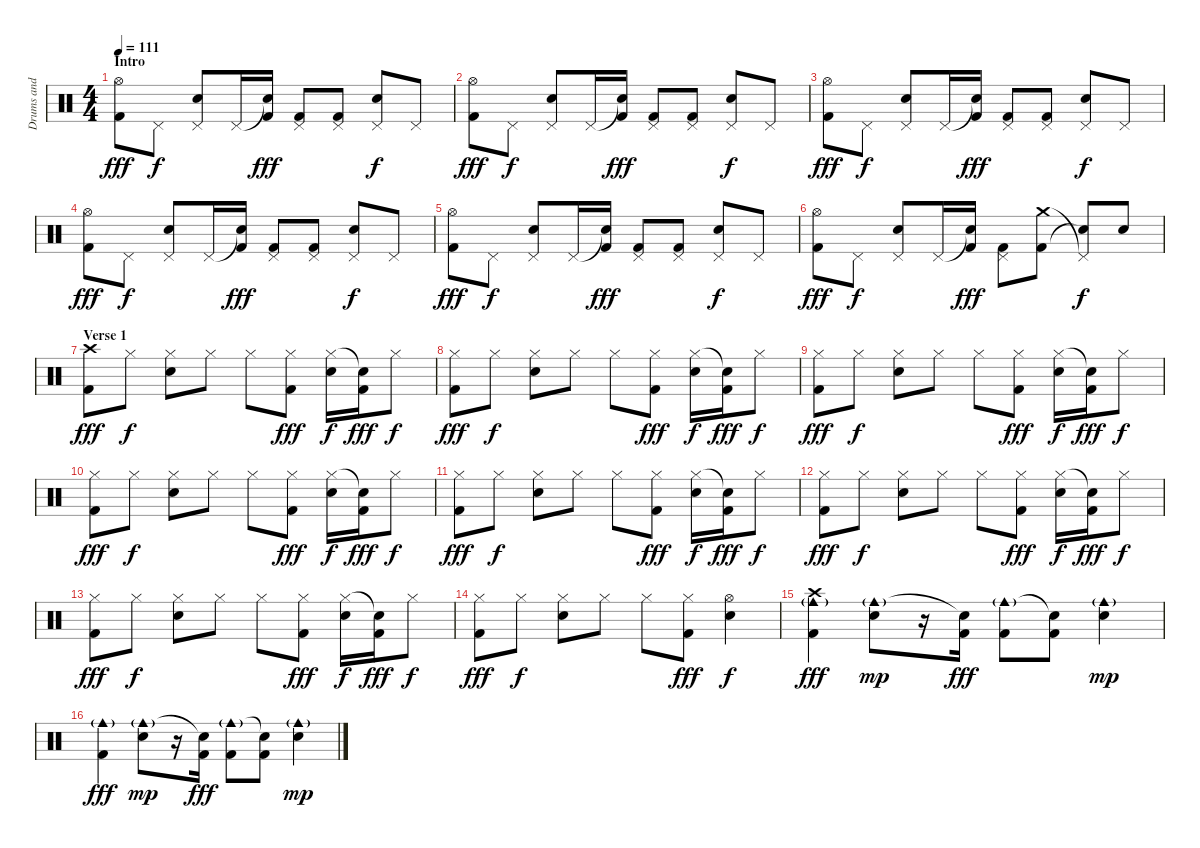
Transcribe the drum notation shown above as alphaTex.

\track ("Drums and Percussion" "Drums and ") {instrument percussion}
\staff {score}
\articulation defaults
\ts (4 4)
\section ("" "Intro")
\tempo 111
\clef neutral
\ks c
("Hi-Hat (open)" "Kick (hit) 2").8{dy fff} "Pedal Hi-Hat (hit)".8{dy f} ("Pedal Hi-Hat (hit)" "Snare (hit) 2").8 "Pedal Hi-Hat (hit)".16 ("Snare (hit)"{t} "Kick (hit) 2").16{dy fff} ("Pedal Hi-Hat (hit)" "Kick (hit) 2").8 ("Pedal Hi-Hat (hit)" "Kick (hit) 2").8 ("Pedal Hi-Hat (hit)" "Snare (hit) 2").8{dy f} "Pedal Hi-Hat (hit)".8 |
("Hi-Hat (open)" "Kick (hit) 2").8{dy fff} "Pedal Hi-Hat (hit)".8{dy f} ("Pedal Hi-Hat (hit)" "Snare (hit) 2").8 "Pedal Hi-Hat (hit)".16 ("Snare (hit)"{t} "Kick (hit) 2").16{dy fff} ("Pedal Hi-Hat (hit)" "Kick (hit) 2").8 ("Pedal Hi-Hat (hit)" "Kick (hit) 2").8 ("Pedal Hi-Hat (hit)" "Snare (hit) 2").8{dy f} "Pedal Hi-Hat (hit)".8 |
("Hi-Hat (open)" "Kick (hit) 2").8{dy fff} "Pedal Hi-Hat (hit)".8{dy f} ("Pedal Hi-Hat (hit)" "Snare (hit) 2").8 "Pedal Hi-Hat (hit)".16 ("Snare (hit)"{t} "Kick (hit) 2").16{dy fff} ("Pedal Hi-Hat (hit)" "Kick (hit) 2").8 ("Pedal Hi-Hat (hit)" "Kick (hit) 2").8 ("Pedal Hi-Hat (hit)" "Snare (hit) 2").8{dy f} "Pedal Hi-Hat (hit)".8 |
("Hi-Hat (open)" "Kick (hit) 2").8{dy fff} "Pedal Hi-Hat (hit)".8{dy f} ("Pedal Hi-Hat (hit)" "Snare (hit) 2").8 "Pedal Hi-Hat (hit)".16 ("Snare (hit)"{t} "Kick (hit) 2").16{dy fff} ("Pedal Hi-Hat (hit)" "Kick (hit) 2").8 ("Pedal Hi-Hat (hit)" "Kick (hit) 2").8 ("Pedal Hi-Hat (hit)" "Snare (hit) 2").8{dy f} "Pedal Hi-Hat (hit)".8 |
("Hi-Hat (open)" "Kick (hit) 2").8{dy fff} "Pedal Hi-Hat (hit)".8{dy f} ("Pedal Hi-Hat (hit)" "Snare (hit) 2").8 "Pedal Hi-Hat (hit)".16 ("Snare (hit)"{t} "Kick (hit) 2").16{dy fff} ("Pedal Hi-Hat (hit)" "Kick (hit) 2").8 ("Pedal Hi-Hat (hit)" "Kick (hit) 2").8 ("Pedal Hi-Hat (hit)" "Snare (hit) 2").8{dy f} "Pedal Hi-Hat (hit)".8 |
("Hi-Hat (open)" "Kick (hit) 2").8{dy fff} "Pedal Hi-Hat (hit)".8{dy f} ("Pedal Hi-Hat (hit)" "Snare (hit) 2").8 "Pedal Hi-Hat (hit)".16 ("Snare (hit)"{t} "Kick (hit) 2").16{dy fff} ("Pedal Hi-Hat (hit)" "Kick (hit) 2").8 ("Crash medium (hit)" "Kick (hit) 2").8 ("Pedal Hi-Hat (hit)"{t} "Snare (hit)"{t}).8{dy f} "Snare (hit) 2".8 |
\section ("" "Verse 1")
("Crash high (hit)" "Kick (hit) 2").8{dy fff} "Hi-Hat (closed)".8{dy f} ("Hi-Hat (closed)" "Snare (hit) 2").8 "Hi-Hat (closed)".8 "Hi-Hat (closed)".8 ("Hi-Hat (closed)" "Kick (hit) 2").8{dy fff} ("Hi-Hat (closed)" "Snare (hit) 2").16{dy f} ("Snare (hit)"{t} "Kick (hit) 2").16{dy fff} "Hi-Hat (closed)".8{dy f} |
("Hi-Hat (closed)" "Kick (hit) 2").8{dy fff} "Hi-Hat (closed)".8{dy f} ("Hi-Hat (closed)" "Snare (hit) 2").8 "Hi-Hat (closed)".8 "Hi-Hat (closed)".8 ("Hi-Hat (closed)" "Kick (hit) 2").8{dy fff} ("Hi-Hat (closed)" "Snare (hit) 2").16{dy f} ("Snare (hit)"{t} "Kick (hit) 2").16{dy fff} "Hi-Hat (closed)".8{dy f} |
("Hi-Hat (closed)" "Kick (hit) 2").8{dy fff} "Hi-Hat (closed)".8{dy f} ("Hi-Hat (closed)" "Snare (hit) 2").8 "Hi-Hat (closed)".8 "Hi-Hat (closed)".8 ("Hi-Hat (closed)" "Kick (hit) 2").8{dy fff} ("Hi-Hat (closed)" "Snare (hit) 2").16{dy f} ("Snare (hit)"{t} "Kick (hit) 2").16{dy fff} "Hi-Hat (closed)".8{dy f} |
("Hi-Hat (closed)" "Kick (hit) 2").8{dy fff} "Hi-Hat (closed)".8{dy f} ("Hi-Hat (closed)" "Snare (hit) 2").8 "Hi-Hat (closed)".8 "Hi-Hat (closed)".8 ("Hi-Hat (closed)" "Kick (hit) 2").8{dy fff} ("Hi-Hat (closed)" "Snare (hit) 2").16{dy f} ("Snare (hit)"{t} "Kick (hit) 2").16{dy fff} "Hi-Hat (closed)".8{dy f} |
("Hi-Hat (closed)" "Kick (hit) 2").8{dy fff} "Hi-Hat (closed)".8{dy f} ("Hi-Hat (closed)" "Snare (hit) 2").8 "Hi-Hat (closed)".8 "Hi-Hat (closed)".8 ("Hi-Hat (closed)" "Kick (hit) 2").8{dy fff} ("Hi-Hat (closed)" "Snare (hit) 2").16{dy f} ("Snare (hit)"{t} "Kick (hit) 2").16{dy fff} "Hi-Hat (closed)".8{dy f} |
("Hi-Hat (closed)" "Kick (hit) 2").8{dy fff} "Hi-Hat (closed)".8{dy f} ("Hi-Hat (closed)" "Snare (hit) 2").8 "Hi-Hat (closed)".8 "Hi-Hat (closed)".8 ("Hi-Hat (closed)" "Kick (hit) 2").8{dy fff} ("Hi-Hat (closed)" "Snare (hit) 2").16{dy f} ("Snare (hit)"{t} "Kick (hit) 2").16{dy fff} "Hi-Hat (closed)".8{dy f} |
("Hi-Hat (closed)" "Kick (hit) 2").8{dy fff} "Hi-Hat (closed)".8{dy f} ("Hi-Hat (closed)" "Snare (hit) 2").8 "Hi-Hat (closed)".8 "Hi-Hat (closed)".8 ("Hi-Hat (closed)" "Kick (hit) 2").8{dy fff} ("Hi-Hat (closed)" "Snare (hit) 2").16{dy f} ("Snare (hit)"{t} "Kick (hit) 2").16{dy fff} "Hi-Hat (closed)".8{dy f} |
("Hi-Hat (closed)" "Kick (hit) 2").8{dy fff} "Hi-Hat (closed)".8{dy f} ("Hi-Hat (closed)" "Snare (hit) 2").8 "Hi-Hat (closed)".8 "Hi-Hat (closed)".8 ("Hi-Hat (closed)" "Kick (hit) 2").8{dy fff} ("Hi-Hat (open)" "Snare (hit) 2").4{dy f} |
("Crash high (hit)" "Cowbell medium (hit)"{g} "Kick (hit) 2").4{dy fff} ("Cowbell medium (hit)"{g} "Snare (hit) 2").8{dy mp} r.16 ("Snare (hit)"{t} "Kick (hit) 2").16{dy fff} ("Cowbell medium (hit)"{g} "Kick (hit) 2").8 ("Snare (hit)"{t} "Kick (hit) 2").8 ("Cowbell medium (hit)"{g} "Snare (hit) 2").4{dy mp} |
("Cowbell medium (hit)"{g} "Kick (hit) 2").4{dy fff} ("Cowbell medium (hit)"{g} "Snare (hit) 2").8{dy mp} r.16 ("Snare (hit)"{t} "Kick (hit) 2").16{dy fff} ("Cowbell medium (hit)"{g} "Kick (hit) 2").8 ("Snare (hit)"{t} "Kick (hit) 2").8 ("Cowbell medium (hit)"{g} "Snare (hit) 2").4{dy mp}
